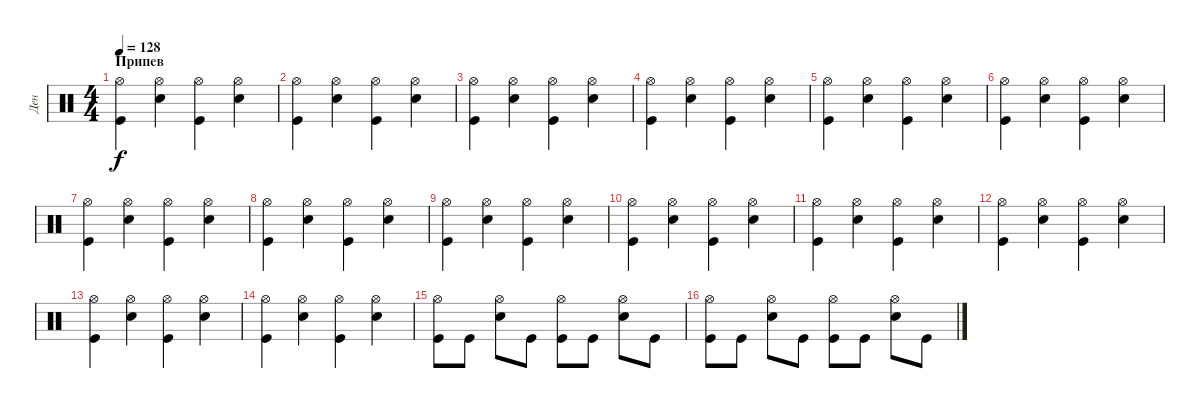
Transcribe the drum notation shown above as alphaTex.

\track ("Ден" "Ден") {instrument percussion}
\staff
\articulation defaults
\ts (4 4)
\section ("" "Припев")
\tempo 128
\clef neutral
\ks c
("Kick (hit)" "Hi-Hat (open)").4{dy f} ("Snare (hit) 2" "Hi-Hat (open)").4 ("Kick (hit)" "Hi-Hat (open)").4 ("Snare (hit) 2" "Hi-Hat (open)").4 |
("Kick (hit)" "Hi-Hat (open)").4 ("Snare (hit) 2" "Hi-Hat (open)").4 ("Kick (hit)" "Hi-Hat (open)").4 ("Snare (hit) 2" "Hi-Hat (open)").4 |
("Kick (hit)" "Hi-Hat (open)").4 ("Snare (hit) 2" "Hi-Hat (open)").4 ("Kick (hit)" "Hi-Hat (open)").4 ("Snare (hit) 2" "Hi-Hat (open)").4 |
("Kick (hit)" "Hi-Hat (open)").4 ("Snare (hit) 2" "Hi-Hat (open)").4 ("Kick (hit)" "Hi-Hat (open)").4 ("Snare (hit) 2" "Hi-Hat (open)").4 |
("Kick (hit)" "Hi-Hat (open)").4 ("Snare (hit) 2" "Hi-Hat (open)").4 ("Kick (hit)" "Hi-Hat (open)").4 ("Snare (hit) 2" "Hi-Hat (open)").4 |
("Kick (hit)" "Hi-Hat (open)").4 ("Snare (hit) 2" "Hi-Hat (open)").4 ("Kick (hit)" "Hi-Hat (open)").4 ("Snare (hit) 2" "Hi-Hat (open)").4 |
("Kick (hit)" "Hi-Hat (open)").4 ("Snare (hit) 2" "Hi-Hat (open)").4 ("Kick (hit)" "Hi-Hat (open)").4 ("Snare (hit) 2" "Hi-Hat (open)").4 |
("Kick (hit)" "Hi-Hat (open)").4 ("Snare (hit) 2" "Hi-Hat (open)").4 ("Kick (hit)" "Hi-Hat (open)").4 ("Snare (hit) 2" "Hi-Hat (open)").4 |
("Kick (hit)" "Hi-Hat (open)").4 ("Snare (hit) 2" "Hi-Hat (open)").4 ("Kick (hit)" "Hi-Hat (open)").4 ("Snare (hit) 2" "Hi-Hat (open)").4 |
("Kick (hit)" "Hi-Hat (open)").4 ("Snare (hit) 2" "Hi-Hat (open)").4 ("Kick (hit)" "Hi-Hat (open)").4 ("Snare (hit) 2" "Hi-Hat (open)").4 |
("Kick (hit)" "Hi-Hat (open)").4 ("Snare (hit) 2" "Hi-Hat (open)").4 ("Kick (hit)" "Hi-Hat (open)").4 ("Snare (hit) 2" "Hi-Hat (open)").4 |
("Kick (hit)" "Hi-Hat (open)").4 ("Snare (hit) 2" "Hi-Hat (open)").4 ("Kick (hit)" "Hi-Hat (open)").4 ("Snare (hit) 2" "Hi-Hat (open)").4 |
("Kick (hit)" "Hi-Hat (open)").4 ("Snare (hit) 2" "Hi-Hat (open)").4 ("Kick (hit)" "Hi-Hat (open)").4 ("Snare (hit) 2" "Hi-Hat (open)").4 |
("Kick (hit)" "Hi-Hat (open)").4 ("Snare (hit) 2" "Hi-Hat (open)").4 ("Kick (hit)" "Hi-Hat (open)").4 ("Snare (hit) 2" "Hi-Hat (open)").4 |
("Kick (hit)" "Hi-Hat (open)").8 "Kick (hit)".8 ("Snare (hit) 2" "Hi-Hat (open)").8 "Kick (hit)".8 ("Kick (hit)" "Hi-Hat (open)").8 "Kick (hit)".8 ("Snare (hit) 2" "Hi-Hat (open)").8 "Kick (hit)".8 |
("Kick (hit)" "Hi-Hat (open)").8 "Kick (hit)".8 ("Snare (hit) 2" "Hi-Hat (open)").8 "Kick (hit)".8 ("Kick (hit)" "Hi-Hat (open)").8 "Kick (hit)".8 ("Snare (hit) 2" "Hi-Hat (open)").8 "Kick (hit)".8
